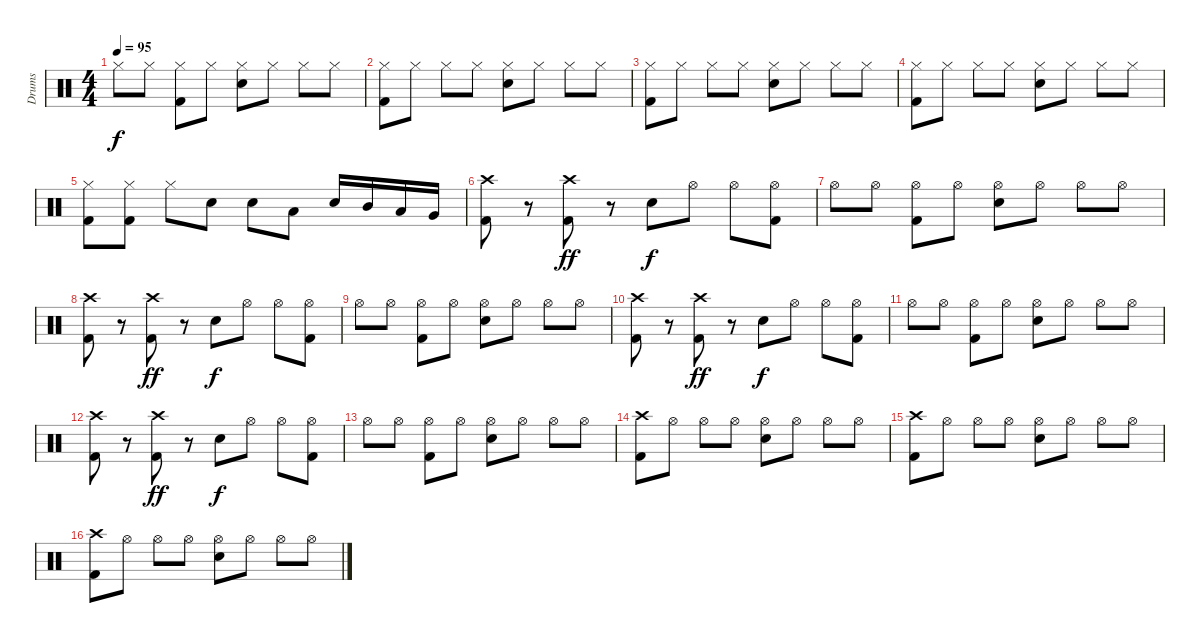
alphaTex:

\track ("Drums" "Drums") {instrument percussion}
\staff {score}
\articulation defaults
\ts (4 4)
\tempo 95
\clef neutral
\ks c "Hi-Hat (closed)".8{dy f} "Hi-Hat (closed)".8
("Hi-Hat (closed)" "Kick (hit) 2").8 "Hi-Hat (closed)".8 ("Snare (hit) 2" "Hi-Hat (closed)").8 "Hi-Hat (closed)".8 "Hi-Hat (closed)".8 "Hi-Hat (closed)".8 |
("Hi-Hat (closed)" "Kick (hit) 2").8 "Hi-Hat (closed)".8 "Hi-Hat (closed)".8 "Hi-Hat (closed)".8 ("Snare (hit) 2" "Hi-Hat (closed)").8 "Hi-Hat (closed)".8 "Hi-Hat (closed)".8 "Hi-Hat (closed)".8 |
("Hi-Hat (closed)" "Kick (hit) 2").8 "Hi-Hat (closed)".8 "Hi-Hat (closed)".8 "Hi-Hat (closed)".8 ("Snare (hit) 2" "Hi-Hat (closed)").8 "Hi-Hat (closed)".8 "Hi-Hat (closed)".8 "Hi-Hat (closed)".8 |
("Hi-Hat (closed)" "Kick (hit) 2").8 "Hi-Hat (closed)".8 "Hi-Hat (closed)".8 "Hi-Hat (closed)".8 ("Snare (hit) 2" "Hi-Hat (closed)").8 "Hi-Hat (closed)".8 "Hi-Hat (closed)".8 "Hi-Hat (closed)".8 |
("Hi-Hat (closed)" "Kick (hit) 2").8 ("Hi-Hat (closed)" "Kick (hit) 2").8 "Hi-Hat (closed)".8 "Snare (hit) 2".8 "Snare (hit) 2".8 "Low Floor Tom (hit)".8 "Snare (hit) 2".16 "Mid Tom (hit)".16 "Low Tom (hit)".16 "Very Low Tom (hit)".16 |
("Crash high (hit)" "Kick (hit) 2").8 r.8 ("Crash high (hit)" "Kick (hit) 2").8{dy ff} r.8 "Snare (hit) 2".8{dy f} "Hi-Hat (open)".8 "Hi-Hat (open)".8 ("Hi-Hat (open)" "Kick (hit) 2").8 |
"Hi-Hat (open)".8 "Hi-Hat (open)".8 ("Hi-Hat (open)" "Kick (hit) 2").8 "Hi-Hat (open)".8 ("Snare (hit) 2" "Hi-Hat (open)").8 "Hi-Hat (open)".8 "Hi-Hat (open)".8 "Hi-Hat (open)".8 |
("Crash high (hit)" "Kick (hit) 2").8 r.8 ("Crash high (hit)" "Kick (hit) 2").8{dy ff} r.8 "Snare (hit) 2".8{dy f} "Hi-Hat (open)".8 "Hi-Hat (open)".8 ("Hi-Hat (open)" "Kick (hit) 2").8 |
"Hi-Hat (open)".8 "Hi-Hat (open)".8 ("Hi-Hat (open)" "Kick (hit) 2").8 "Hi-Hat (open)".8 ("Snare (hit) 2" "Hi-Hat (open)").8 "Hi-Hat (open)".8 "Hi-Hat (open)".8 "Hi-Hat (open)".8 |
("Crash high (hit)" "Kick (hit) 2").8 r.8 ("Crash high (hit)" "Kick (hit) 2").8{dy ff} r.8 "Snare (hit) 2".8{dy f} "Hi-Hat (open)".8 "Hi-Hat (open)".8 ("Hi-Hat (open)" "Kick (hit) 2").8 |
"Hi-Hat (open)".8 "Hi-Hat (open)".8 ("Hi-Hat (open)" "Kick (hit) 2").8 "Hi-Hat (open)".8 ("Snare (hit) 2" "Hi-Hat (open)").8 "Hi-Hat (open)".8 "Hi-Hat (open)".8 "Hi-Hat (open)".8 |
("Crash high (hit)" "Kick (hit) 2").8 r.8 ("Crash high (hit)" "Kick (hit) 2").8{dy ff} r.8 "Snare (hit) 2".8{dy f} "Hi-Hat (open)".8 "Hi-Hat (open)".8 ("Hi-Hat (open)" "Kick (hit) 2").8 |
"Hi-Hat (open)".8 "Hi-Hat (open)".8 ("Hi-Hat (open)" "Kick (hit) 2").8 "Hi-Hat (open)".8 ("Snare (hit) 2" "Hi-Hat (open)").8 "Hi-Hat (open)".8 "Hi-Hat (open)".8 "Hi-Hat (open)".8 |
("Crash high (hit)" "Kick (hit) 2").8 "Hi-Hat (open)".8 "Hi-Hat (open)".8 "Hi-Hat (open)".8 ("Snare (hit) 2" "Hi-Hat (open)").8 "Hi-Hat (open)".8 "Hi-Hat (open)".8 "Hi-Hat (open)".8 |
("Crash high (hit)" "Kick (hit) 2").8 "Hi-Hat (open)".8 "Hi-Hat (open)".8 "Hi-Hat (open)".8 ("Snare (hit) 2" "Hi-Hat (open)").8 "Hi-Hat (open)".8 "Hi-Hat (open)".8 "Hi-Hat (open)".8 |
("Crash high (hit)" "Kick (hit) 2").8 "Hi-Hat (open)".8 "Hi-Hat (open)".8 "Hi-Hat (open)".8 ("Snare (hit) 2" "Hi-Hat (open)").8 "Hi-Hat (open)".8 "Hi-Hat (open)".8 "Hi-Hat (open)".8
